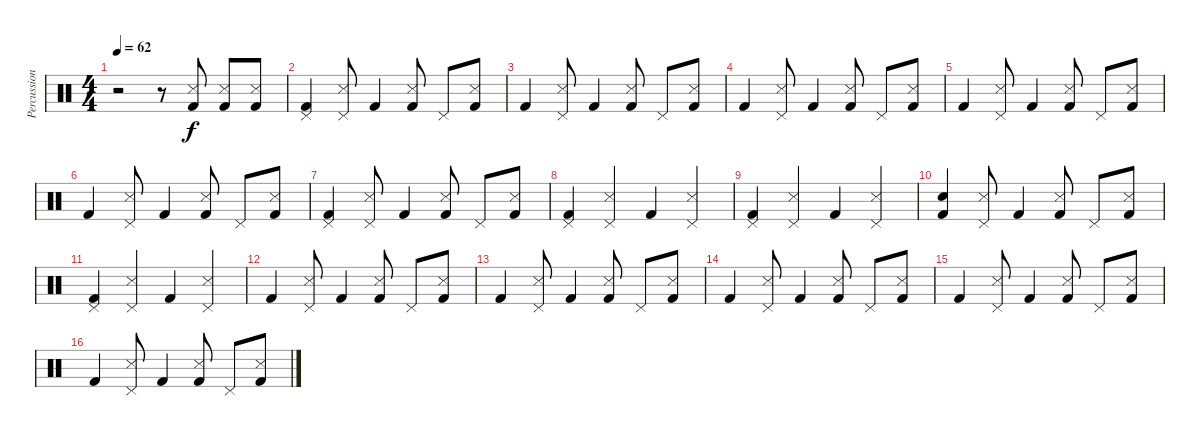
\track ("Percussions" "Percussion") {instrument percussion}
\staff {score}
\articulation defaults
\ts (4 4)
\tempo 62
\clef neutral
\ks c
r.2{dy f} r.8 ("Snare (side stick) 3" "Kick (hit) 2").8 ("Snare (side stick) 3" "Kick (hit) 2").8 ("Snare (side stick) 3" "Kick (hit) 2").8 |
("Kick (hit) 2" "Pedal Hi-Hat (hit)").4 ("Snare (side stick) 3" "Pedal Hi-Hat (hit)").8 "Kick (hit) 2".4 ("Kick (hit) 2" "Snare (side stick) 3").8 "Pedal Hi-Hat (hit)".8 ("Kick (hit) 2" "Snare (side stick) 3").8 |
"Kick (hit) 2".4 ("Snare (side stick) 3" "Pedal Hi-Hat (hit)").8 "Kick (hit) 2".4 ("Kick (hit) 2" "Snare (side stick) 3").8 "Pedal Hi-Hat (hit)".8 ("Kick (hit) 2" "Snare (side stick) 3").8 |
"Kick (hit) 2".4 ("Snare (side stick) 3" "Pedal Hi-Hat (hit)").8 "Kick (hit) 2".4 ("Kick (hit) 2" "Snare (side stick) 3").8 "Pedal Hi-Hat (hit)".8 ("Kick (hit) 2" "Snare (side stick) 3").8 |
"Kick (hit) 2".4 ("Snare (side stick) 3" "Pedal Hi-Hat (hit)").8 "Kick (hit) 2".4 ("Kick (hit) 2" "Snare (side stick) 3").8 "Pedal Hi-Hat (hit)".8 ("Kick (hit) 2" "Snare (side stick) 3").8 |
"Kick (hit) 2".4 ("Snare (side stick) 3" "Pedal Hi-Hat (hit)").8 "Kick (hit) 2".4 ("Kick (hit) 2" "Snare (side stick) 3").8 "Pedal Hi-Hat (hit)".8 ("Kick (hit) 2" "Snare (side stick) 3").8 |
("Kick (hit) 2" "Pedal Hi-Hat (hit)").4 ("Snare (side stick) 3" "Pedal Hi-Hat (hit)").8 "Kick (hit) 2".4 ("Kick (hit) 2" "Snare (side stick) 3").8 "Pedal Hi-Hat (hit)".8 ("Kick (hit) 2" "Snare (side stick) 3").8 |
("Kick (hit) 2" "Pedal Hi-Hat (hit)").4 ("Snare (side stick) 3" "Pedal Hi-Hat (hit)").4 "Kick (hit) 2".4 ("Snare (side stick) 3" "Pedal Hi-Hat (hit)").4 |
("Kick (hit) 2" "Pedal Hi-Hat (hit)").4 ("Snare (side stick) 3" "Pedal Hi-Hat (hit)").4 "Kick (hit) 2".4 ("Snare (side stick) 3" "Pedal Hi-Hat (hit)").4 |
("Kick (hit) 2" "Electric Snare (hit)").4 ("Snare (side stick) 3" "Pedal Hi-Hat (hit)").8 "Kick (hit) 2".4 ("Kick (hit) 2" "Snare (side stick) 3").8 "Pedal Hi-Hat (hit)".8 ("Kick (hit) 2" "Snare (side stick) 3").8 |
("Kick (hit) 2" "Pedal Hi-Hat (hit)").4 ("Snare (side stick) 3" "Pedal Hi-Hat (hit)").4 "Kick (hit) 2".4 ("Snare (side stick) 3" "Pedal Hi-Hat (hit)").4 |
"Kick (hit) 2".4 ("Snare (side stick) 3" "Pedal Hi-Hat (hit)").8 "Kick (hit) 2".4 ("Kick (hit) 2" "Snare (side stick) 3").8 "Pedal Hi-Hat (hit)".8 ("Kick (hit) 2" "Snare (side stick) 3").8 |
"Kick (hit) 2".4 ("Snare (side stick) 3" "Pedal Hi-Hat (hit)").8 "Kick (hit) 2".4 ("Kick (hit) 2" "Snare (side stick) 3").8 "Pedal Hi-Hat (hit)".8 ("Kick (hit) 2" "Snare (side stick) 3").8 |
"Kick (hit) 2".4 ("Snare (side stick) 3" "Pedal Hi-Hat (hit)").8 "Kick (hit) 2".4 ("Kick (hit) 2" "Snare (side stick) 3").8 "Pedal Hi-Hat (hit)".8 ("Kick (hit) 2" "Snare (side stick) 3").8 |
"Kick (hit) 2".4 ("Snare (side stick) 3" "Pedal Hi-Hat (hit)").8 "Kick (hit) 2".4 ("Kick (hit) 2" "Snare (side stick) 3").8 "Pedal Hi-Hat (hit)".8 ("Kick (hit) 2" "Snare (side stick) 3").8 |
"Kick (hit) 2".4 ("Snare (side stick) 3" "Pedal Hi-Hat (hit)").8 "Kick (hit) 2".4 ("Kick (hit) 2" "Snare (side stick) 3").8 "Pedal Hi-Hat (hit)".8 ("Kick (hit) 2" "Snare (side stick) 3").8
